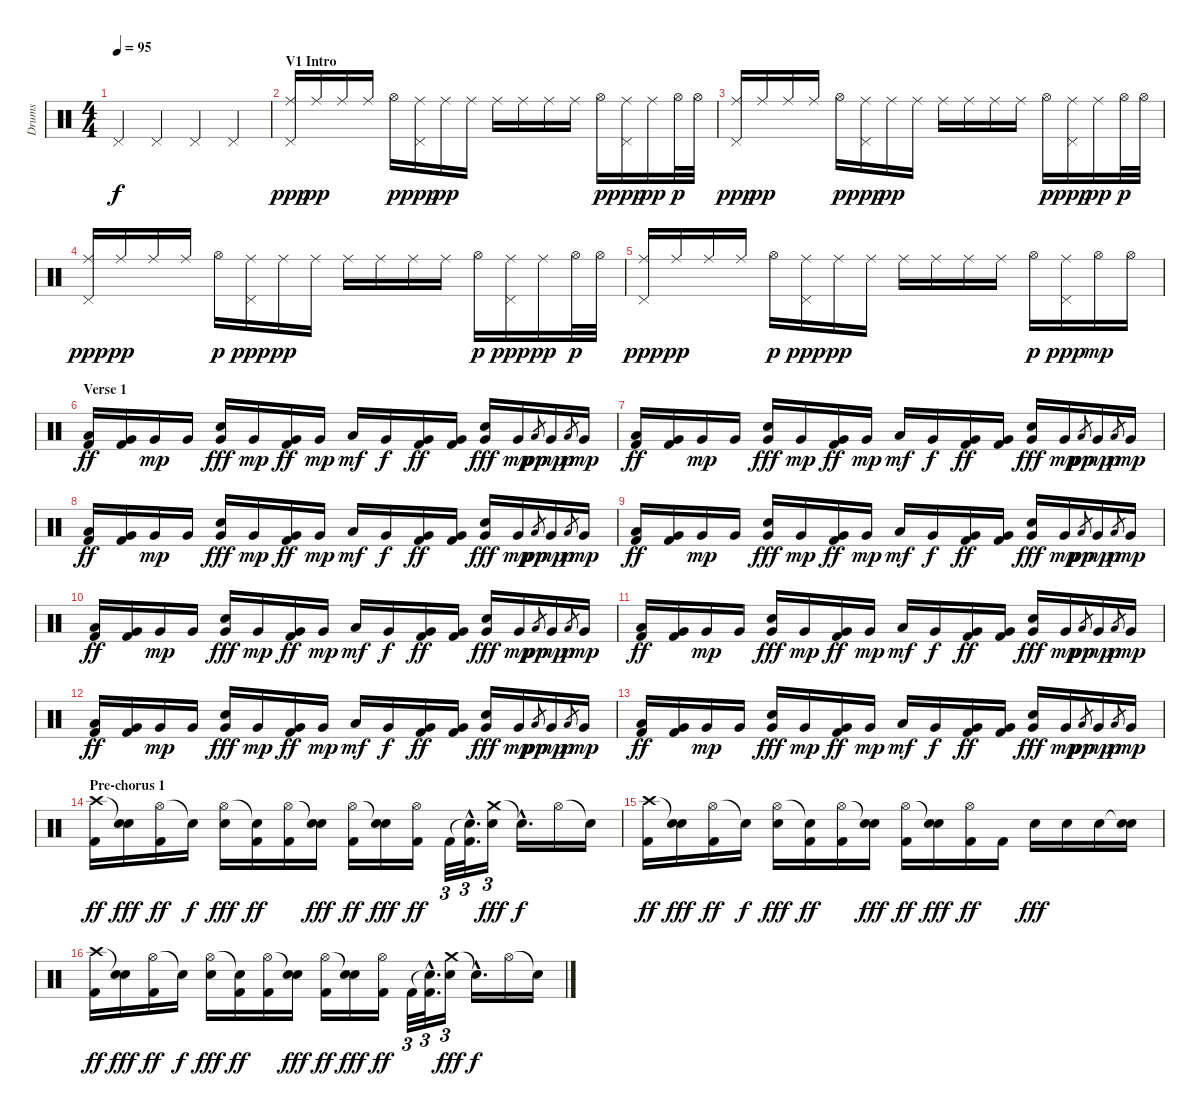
\track ("Drums" "Drums") {instrument percussion}
\staff {score}
\articulation defaults
\ts (4 4)
\tempo 95
\clef neutral
\ks c "Pedal Hi-Hat (hit)".4{dy f} "Pedal Hi-Hat (hit)".4 "Pedal Hi-Hat (hit)".4 "Pedal Hi-Hat (hit)".4
|
\section ("" "V1 Intro")
("Ride (middle)" "Pedal Hi-Hat (hit)").16{dy ppp} "Ride (middle)".16{dy pp} "Ride (middle)".16 "Ride (middle)".16 "Hi-Hat (open)".16{dy p} ("Ride (middle)" "Pedal Hi-Hat (hit)").16{dy ppp} "Ride (middle)".16{dy pp} "Ride (middle)".16 "Ride (middle)".16 "Ride (middle)".16 "Ride (middle)".16 "Ride (middle)".16 "Hi-Hat (open)".16{dy p} ("Ride (middle)" "Pedal Hi-Hat (hit)").16{dy ppp} "Ride (middle)".16{dy pp} "Hi-Hat (open)".32{dy p} "Hi-Hat (open)".32 |
("Ride (middle)" "Pedal Hi-Hat (hit)").16{dy ppp} "Ride (middle)".16{dy pp} "Ride (middle)".16 "Ride (middle)".16 "Hi-Hat (open)".16{dy p} ("Ride (middle)" "Pedal Hi-Hat (hit)").16{dy ppp} "Ride (middle)".16{dy pp} "Ride (middle)".16 "Ride (middle)".16 "Ride (middle)".16 "Ride (middle)".16 "Ride (middle)".16 "Hi-Hat (open)".16{dy p} ("Ride (middle)" "Pedal Hi-Hat (hit)").16{dy ppp} "Ride (middle)".16{dy pp} "Hi-Hat (open)".32{dy p} "Hi-Hat (open)".32 |
("Ride (middle)" "Pedal Hi-Hat (hit)").16{dy ppp} "Ride (middle)".16{dy pp} "Ride (middle)".16 "Ride (middle)".16 "Hi-Hat (open)".16{dy p} ("Ride (middle)" "Pedal Hi-Hat (hit)").16{dy ppp} "Ride (middle)".16{dy pp} "Ride (middle)".16 "Ride (middle)".16 "Ride (middle)".16 "Ride (middle)".16 "Ride (middle)".16 "Hi-Hat (open)".16{dy p} ("Ride (middle)" "Pedal Hi-Hat (hit)").16{dy ppp} "Ride (middle)".16{dy pp} "Hi-Hat (open)".32{dy p} "Hi-Hat (open)".32 |
("Ride (middle)" "Pedal Hi-Hat (hit)").16{dy ppp} "Ride (middle)".16{dy pp} "Ride (middle)".16 "Ride (middle)".16 "Hi-Hat (open)".16{dy p} ("Ride (middle)" "Pedal Hi-Hat (hit)").16{dy ppp} "Ride (middle)".16{dy pp} "Ride (middle)".16 "Ride (middle)".16 "Ride (middle)".16 "Ride (middle)".16 "Ride (middle)".16 "Hi-Hat (open)".16{dy p} ("Ride (middle)" "Pedal Hi-Hat (hit)").16{dy ppp} "Hi-Hat (open)".16{dy mp} "Hi-Hat (open)".16 |
\section ("" "Verse 1")
("Low Tom (hit)" "Kick (hit) 2").16{dy ff} ("Very Low Tom (hit)" "Kick (hit) 2").16 "Very Low Tom (hit)".16{dy mp} "Very Low Tom (hit)".16 ("Very Low Tom (hit)" "Electric Snare (hit)").16{dy fff} "Very Low Tom (hit)".16{dy mp} ("Very Low Tom (hit)" "Kick (hit) 2").16{dy ff} "Very Low Tom (hit)".16{dy mp} "Low Tom (hit)".16{dy mf} "Very Low Tom (hit)".16{dy f} ("Very Low Tom (hit)" "Kick (hit) 2").16{dy ff} ("Very Low Tom (hit)" "Kick (hit) 2").16 ("Very Low Tom (hit)" "Electric Snare (hit)").16{dy fff} "Very Low Tom (hit)".16{dy mp} "Low Tom (hit)".8{gr dy pp} "Very Low Tom (hit)".16{dy mp} "Low Tom (hit)".8{gr dy p} "Very Low Tom (hit)".16{dy mp} |
("Low Tom (hit)" "Kick (hit) 2").16{dy ff} ("Very Low Tom (hit)" "Kick (hit) 2").16 "Very Low Tom (hit)".16{dy mp} "Very Low Tom (hit)".16 ("Very Low Tom (hit)" "Electric Snare (hit)").16{dy fff} "Very Low Tom (hit)".16{dy mp} ("Very Low Tom (hit)" "Kick (hit) 2").16{dy ff} "Very Low Tom (hit)".16{dy mp} "Low Tom (hit)".16{dy mf} "Very Low Tom (hit)".16{dy f} ("Very Low Tom (hit)" "Kick (hit) 2").16{dy ff} ("Very Low Tom (hit)" "Kick (hit) 2").16 ("Very Low Tom (hit)" "Electric Snare (hit)").16{dy fff} "Very Low Tom (hit)".16{dy mp} "Low Tom (hit)".8{gr dy pp} "Very Low Tom (hit)".16{dy mp} "Low Tom (hit)".8{gr dy p} "Very Low Tom (hit)".16{dy mp} |
("Low Tom (hit)" "Kick (hit) 2").16{dy ff} ("Very Low Tom (hit)" "Kick (hit) 2").16 "Very Low Tom (hit)".16{dy mp} "Very Low Tom (hit)".16 ("Very Low Tom (hit)" "Electric Snare (hit)").16{dy fff} "Very Low Tom (hit)".16{dy mp} ("Very Low Tom (hit)" "Kick (hit) 2").16{dy ff} "Very Low Tom (hit)".16{dy mp} "Low Tom (hit)".16{dy mf} "Very Low Tom (hit)".16{dy f} ("Very Low Tom (hit)" "Kick (hit) 2").16{dy ff} ("Very Low Tom (hit)" "Kick (hit) 2").16 ("Very Low Tom (hit)" "Electric Snare (hit)").16{dy fff} "Very Low Tom (hit)".16{dy mp} "Low Tom (hit)".8{gr dy pp} "Very Low Tom (hit)".16{dy mp} "Low Tom (hit)".8{gr dy p} "Very Low Tom (hit)".16{dy mp} |
("Low Tom (hit)" "Kick (hit) 2").16{dy ff} ("Very Low Tom (hit)" "Kick (hit) 2").16 "Very Low Tom (hit)".16{dy mp} "Very Low Tom (hit)".16 ("Very Low Tom (hit)" "Electric Snare (hit)").16{dy fff} "Very Low Tom (hit)".16{dy mp} ("Very Low Tom (hit)" "Kick (hit) 2").16{dy ff} "Very Low Tom (hit)".16{dy mp} "Low Tom (hit)".16{dy mf} "Very Low Tom (hit)".16{dy f} ("Very Low Tom (hit)" "Kick (hit) 2").16{dy ff} ("Very Low Tom (hit)" "Kick (hit) 2").16 ("Very Low Tom (hit)" "Electric Snare (hit)").16{dy fff} "Very Low Tom (hit)".16{dy mp} "Low Tom (hit)".8{gr dy pp} "Very Low Tom (hit)".16{dy mp} "Low Tom (hit)".8{gr dy p} "Very Low Tom (hit)".16{dy mp} |
("Low Tom (hit)" "Kick (hit) 2").16{dy ff} ("Very Low Tom (hit)" "Kick (hit) 2").16 "Very Low Tom (hit)".16{dy mp} "Very Low Tom (hit)".16 ("Very Low Tom (hit)" "Electric Snare (hit)").16{dy fff} "Very Low Tom (hit)".16{dy mp} ("Very Low Tom (hit)" "Kick (hit) 2").16{dy ff} "Very Low Tom (hit)".16{dy mp} "Low Tom (hit)".16{dy mf} "Very Low Tom (hit)".16{dy f} ("Very Low Tom (hit)" "Kick (hit) 2").16{dy ff} ("Very Low Tom (hit)" "Kick (hit) 2").16 ("Very Low Tom (hit)" "Electric Snare (hit)").16{dy fff} "Very Low Tom (hit)".16{dy mp} "Low Tom (hit)".8{gr dy pp} "Very Low Tom (hit)".16{dy mp} "Low Tom (hit)".8{gr dy p} "Very Low Tom (hit)".16{dy mp} |
("Low Tom (hit)" "Kick (hit) 2").16{dy ff} ("Very Low Tom (hit)" "Kick (hit) 2").16 "Very Low Tom (hit)".16{dy mp} "Very Low Tom (hit)".16 ("Very Low Tom (hit)" "Electric Snare (hit)").16{dy fff} "Very Low Tom (hit)".16{dy mp} ("Very Low Tom (hit)" "Kick (hit) 2").16{dy ff} "Very Low Tom (hit)".16{dy mp} "Low Tom (hit)".16{dy mf} "Very Low Tom (hit)".16{dy f} ("Very Low Tom (hit)" "Kick (hit) 2").16{dy ff} ("Very Low Tom (hit)" "Kick (hit) 2").16 ("Very Low Tom (hit)" "Electric Snare (hit)").16{dy fff} "Very Low Tom (hit)".16{dy mp} "Low Tom (hit)".8{gr dy pp} "Very Low Tom (hit)".16{dy mp} "Low Tom (hit)".8{gr dy p} "Very Low Tom (hit)".16{dy mp} |
("Low Tom (hit)" "Kick (hit) 2").16{dy ff} ("Very Low Tom (hit)" "Kick (hit) 2").16 "Very Low Tom (hit)".16{dy mp} "Very Low Tom (hit)".16 ("Very Low Tom (hit)" "Electric Snare (hit)").16{dy fff} "Very Low Tom (hit)".16{dy mp} ("Very Low Tom (hit)" "Kick (hit) 2").16{dy ff} "Very Low Tom (hit)".16{dy mp} "Low Tom (hit)".16{dy mf} "Very Low Tom (hit)".16{dy f} ("Very Low Tom (hit)" "Kick (hit) 2").16{dy ff} ("Very Low Tom (hit)" "Kick (hit) 2").16 ("Very Low Tom (hit)" "Electric Snare (hit)").16{dy fff} "Very Low Tom (hit)".16{dy mp} "Low Tom (hit)".8{gr dy pp} "Very Low Tom (hit)".16{dy mp} "Low Tom (hit)".8{gr dy p} "Very Low Tom (hit)".16{dy mp} |
("Low Tom (hit)" "Kick (hit) 2").16{dy ff} ("Very Low Tom (hit)" "Kick (hit) 2").16 "Very Low Tom (hit)".16{dy mp} "Very Low Tom (hit)".16 ("Very Low Tom (hit)" "Electric Snare (hit)").16{dy fff} "Very Low Tom (hit)".16{dy mp} ("Very Low Tom (hit)" "Kick (hit) 2").16{dy ff} "Very Low Tom (hit)".16{dy mp} "Low Tom (hit)".16{dy mf} "Very Low Tom (hit)".16{dy f} ("Very Low Tom (hit)" "Kick (hit) 2").16{dy ff} ("Very Low Tom (hit)" "Kick (hit) 2").16 ("Very Low Tom (hit)" "Electric Snare (hit)").16{dy fff} "Very Low Tom (hit)".16{dy mp} "Low Tom (hit)".8{gr dy pp} "Very Low Tom (hit)".16{dy mp} "Low Tom (hit)".8{gr dy p} "Very Low Tom (hit)".16{dy mp} |
\section ("" "Pre-chorus 1")
("Crash high (hit)" "Kick (hit) 2").16{dy ff} ("Snare (hit)"{t} "Electric Snare (hit)").16{dy fff} ("Hi-Hat (open)" "Kick (hit) 2").16{dy ff} "Snare (hit)"{t}.16{dy f} ("Hi-Hat (open)" "Electric Snare (hit)").16{dy fff} ("Snare (hit)"{t} "Kick (hit) 2").16{dy ff} ("Hi-Hat (open)" "Kick (hit) 2").16 ("Snare (hit)"{t} "Electric Snare (hit)").16{dy fff} ("Hi-Hat (open)" "Kick (hit) 2").16{dy ff} ("Snare (hit)"{t} "Electric Snare (hit)").16{dy fff} ("Hi-Hat (open)" "Kick (hit) 2").16{dy ff} "Kick (hit) 2".32{tu (3 2)} ("Snare (hit)"{hac t} "Kick (hit) 2"{hac}).32{d tu (3 2)} ("Crash medium (hit)" "Electric Snare (hit)").16{tu (3 2) dy fff} "Snare (hit)"{hac t}.16{d dy f} "Hi-Hat (open)".16 "Snare (hit)"{t}.16 |
("Crash high (hit)" "Kick (hit) 2").16{dy ff} ("Snare (hit)"{t} "Electric Snare (hit)").16{dy fff} ("Hi-Hat (open)" "Kick (hit) 2").16{dy ff} "Snare (hit)"{t}.16{dy f} ("Hi-Hat (open)" "Electric Snare (hit)").16{dy fff} ("Snare (hit)"{t} "Kick (hit) 2").16{dy ff} ("Hi-Hat (open)" "Kick (hit) 2").16 ("Snare (hit)"{t} "Electric Snare (hit)").16{dy fff} ("Hi-Hat (open)" "Kick (hit) 2").16{dy ff} ("Snare (hit)"{t} "Electric Snare (hit)").16{dy fff} ("Hi-Hat (open)" "Kick (hit) 2").16{dy ff} "Kick (hit) 2".16 "Electric Snare (hit)".16{dy fff} "Electric Snare (hit)".16 "Electric Snare (hit)".16 ("Snare (hit)"{t} "Electric Snare (hit)").16 |
("Crash high (hit)" "Kick (hit) 2").16{dy ff} ("Snare (hit)"{t} "Electric Snare (hit)").16{dy fff} ("Hi-Hat (open)" "Kick (hit) 2").16{dy ff} "Snare (hit)"{t}.16{dy f} ("Hi-Hat (open)" "Electric Snare (hit)").16{dy fff} ("Snare (hit)"{t} "Kick (hit) 2").16{dy ff} ("Hi-Hat (open)" "Kick (hit) 2").16 ("Snare (hit)"{t} "Electric Snare (hit)").16{dy fff} ("Hi-Hat (open)" "Kick (hit) 2").16{dy ff} ("Snare (hit)"{t} "Electric Snare (hit)").16{dy fff} ("Hi-Hat (open)" "Kick (hit) 2").16{dy ff} "Kick (hit) 2".32{tu (3 2)} ("Snare (hit)"{hac t} "Kick (hit) 2"{hac}).32{d tu (3 2)} ("Crash medium (hit)" "Electric Snare (hit)").16{tu (3 2) dy fff} "Snare (hit)"{hac t}.16{d dy f} "Hi-Hat (open)".16 "Snare (hit)"{t}.16
